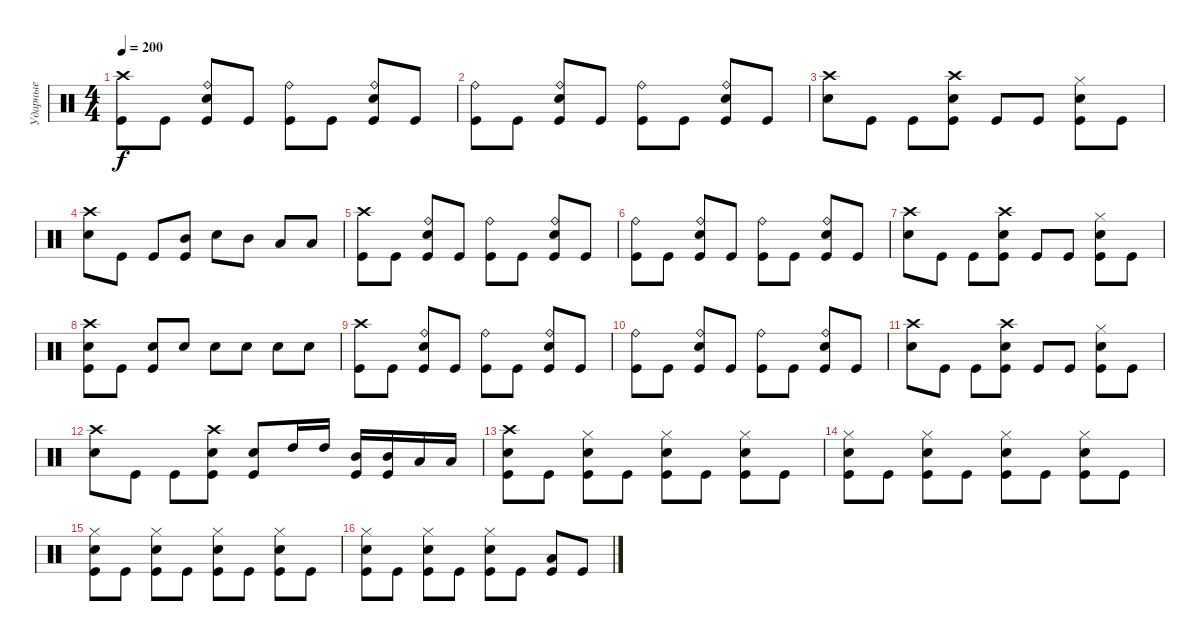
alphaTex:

\track ("Ударные" "Ударные") {instrument percussion}
\staff {score}
\articulation defaults
\ts (4 4)
\tempo 200
\clef neutral
\ks c
("Crash high (hit)" "Kick (hit)").8{dy f} "Kick (hit)".8 ("Ride (bell)" "Electric Snare (hit)" "Kick (hit)").8 "Kick (hit)".8 ("Ride (bell)" "Kick (hit)").8 "Kick (hit)".8 ("Ride (bell)" "Electric Snare (hit)" "Kick (hit)").8 "Kick (hit)".8 |
("Ride (bell)" "Kick (hit)").8 "Kick (hit)".8 ("Ride (bell)" "Electric Snare (hit)" "Kick (hit)").8 "Kick (hit)".8 ("Ride (bell)" "Kick (hit)").8 "Kick (hit)".8 ("Ride (bell)" "Electric Snare (hit)" "Kick (hit)").8 "Kick (hit)".8 |
("Crash high (hit)" "Electric Snare (hit)").8 "Kick (hit)".8 "Kick (hit)".8 ("Crash high (hit)" "Electric Snare (hit)" "Kick (hit)").8 "Kick (hit)".8 "Kick (hit)".8 ("Hi-Hat (closed)" "Electric Snare (hit)" "Kick (hit)").8 "Kick (hit)".8 |
("Crash high (hit)" "Electric Snare (hit)").8 "Kick (hit)".8 "Kick (hit)".8 ("Mid Tom (hit)" "Kick (hit)").8 "Electric Snare (hit)".8 "Mid Tom (hit)".8 "Low Tom (hit)".8 "Low Tom (hit)".8 |
("Crash high (hit)" "Kick (hit)").8 "Kick (hit)".8 ("Ride (bell)" "Electric Snare (hit)" "Kick (hit)").8 "Kick (hit)".8 ("Ride (bell)" "Kick (hit)").8 "Kick (hit)".8 ("Ride (bell)" "Electric Snare (hit)" "Kick (hit)").8 "Kick (hit)".8 |
("Ride (bell)" "Kick (hit)").8 "Kick (hit)".8 ("Ride (bell)" "Electric Snare (hit)" "Kick (hit)").8 "Kick (hit)".8 ("Ride (bell)" "Kick (hit)").8 "Kick (hit)".8 ("Ride (bell)" "Electric Snare (hit)" "Kick (hit)").8 "Kick (hit)".8 |
("Crash high (hit)" "Electric Snare (hit)").8 "Kick (hit)".8 "Kick (hit)".8 ("Crash high (hit)" "Electric Snare (hit)" "Kick (hit)").8 "Kick (hit)".8 "Kick (hit)".8 ("Hi-Hat (closed)" "Electric Snare (hit)" "Kick (hit)").8 "Kick (hit)".8 |
("Crash high (hit)" "Electric Snare (hit)" "Kick (hit)").8 "Kick (hit)".8 ("Electric Snare (hit)" "Kick (hit)").8 "Electric Snare (hit)".8 "Electric Snare (hit)".8 "Electric Snare (hit)".8 "Electric Snare (hit)".8 "Electric Snare (hit)".8 |
("Crash high (hit)" "Kick (hit)").8 "Kick (hit)".8 ("Ride (bell)" "Electric Snare (hit)" "Kick (hit)").8 "Kick (hit)".8 ("Ride (bell)" "Kick (hit)").8 "Kick (hit)".8 ("Ride (bell)" "Electric Snare (hit)" "Kick (hit)").8 "Kick (hit)".8 |
("Ride (bell)" "Kick (hit)").8 "Kick (hit)".8 ("Ride (bell)" "Electric Snare (hit)" "Kick (hit)").8 "Kick (hit)".8 ("Ride (bell)" "Kick (hit)").8 "Kick (hit)".8 ("Ride (bell)" "Electric Snare (hit)" "Kick (hit)").8 "Kick (hit)".8 |
("Crash high (hit)" "Electric Snare (hit)").8 "Kick (hit)".8 "Kick (hit)".8 ("Crash high (hit)" "Electric Snare (hit)" "Kick (hit)").8 "Kick (hit)".8 "Kick (hit)".8 ("Hi-Hat (closed)" "Electric Snare (hit)" "Kick (hit)").8 "Kick (hit)".8 |
("Crash high (hit)" "Electric Snare (hit)").8 "Kick (hit)".8 "Kick (hit)".8 ("Crash high (hit)" "Electric Snare (hit)" "Kick (hit)").8 ("Electric Snare (hit)" "Kick (hit)").8 "High Tom (hit)".16 "High Tom (hit)".16 ("Mid Tom (hit)" "Kick (hit)").16 ("Mid Tom (hit)" "Kick (hit)").16 "Low Tom (hit)".16 "Low Tom (hit)".16 |
("Crash high (hit)" "Electric Snare (hit)" "Kick (hit)").8 "Kick (hit)".8 ("Hi-Hat (closed)" "Electric Snare (hit)" "Kick (hit)").8 "Kick (hit)".8 ("Hi-Hat (closed)" "Electric Snare (hit)" "Kick (hit)").8 "Kick (hit)".8 ("Hi-Hat (closed)" "Electric Snare (hit)" "Kick (hit)").8 "Kick (hit)".8 |
("Hi-Hat (closed)" "Electric Snare (hit)" "Kick (hit)").8 "Kick (hit)".8 ("Hi-Hat (closed)" "Electric Snare (hit)" "Kick (hit)").8 "Kick (hit)".8 ("Hi-Hat (closed)" "Electric Snare (hit)" "Kick (hit)").8 "Kick (hit)".8 ("Hi-Hat (closed)" "Electric Snare (hit)" "Kick (hit)").8 "Kick (hit)".8 |
("Hi-Hat (closed)" "Electric Snare (hit)" "Kick (hit)").8 "Kick (hit)".8 ("Hi-Hat (closed)" "Electric Snare (hit)" "Kick (hit)").8 "Kick (hit)".8 ("Hi-Hat (closed)" "Electric Snare (hit)" "Kick (hit)").8 "Kick (hit)".8 ("Hi-Hat (closed)" "Electric Snare (hit)" "Kick (hit)").8 "Kick (hit)".8 |
("Hi-Hat (closed)" "Electric Snare (hit)" "Kick (hit)").8 "Kick (hit)".8 ("Hi-Hat (closed)" "Electric Snare (hit)" "Kick (hit)").8 "Kick (hit)".8 ("Hi-Hat (closed)" "Electric Snare (hit)" "Kick (hit)").8 "Kick (hit)".8 ("Low Tom (hit)" "Kick (hit)").8 "Kick (hit)".8
